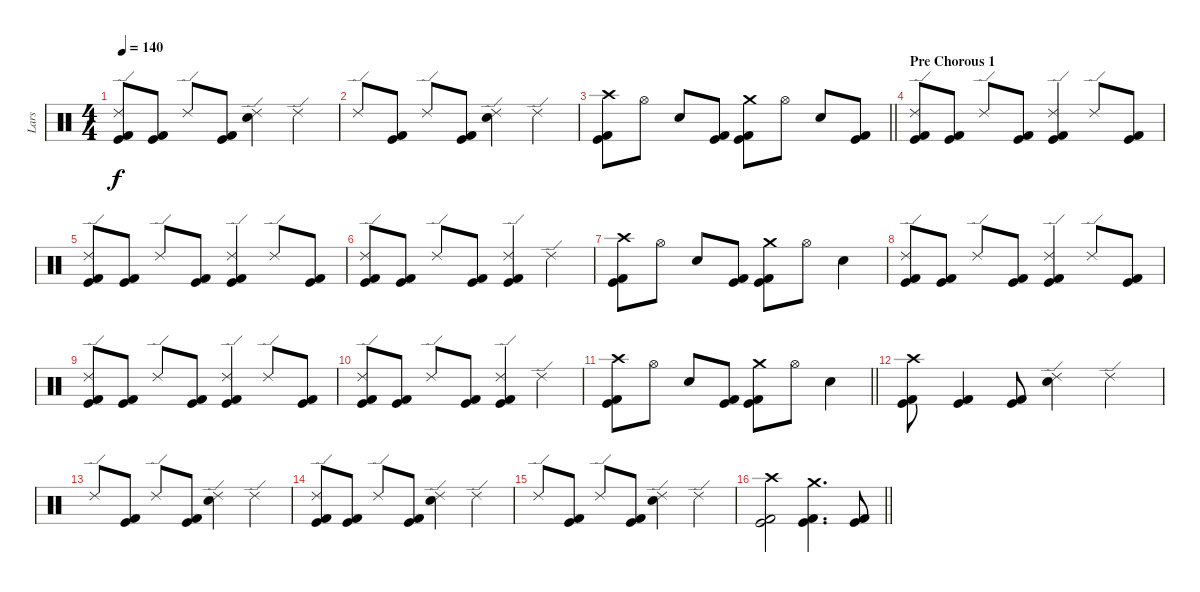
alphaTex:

\track ("Lars" "Lars") {instrument percussion}
\staff {score}
\articulation defaults
\ts (4 4)
\tempo 140
\clef neutral
\ks c
("Ride (edge) 2" "Kick (hit)" "Kick (hit) 2").8{dy f} ("Kick (hit)" "Kick (hit) 2").8 "Ride (edge) 2".8 ("Kick (hit)" "Kick (hit) 2").8 ("Ride (edge) 2" "Electric Snare (hit)").4 "Ride (edge) 2".4 |
"Ride (edge) 2".8 ("Kick (hit)" "Kick (hit) 2").8 "Ride (edge) 2".8 ("Kick (hit)" "Kick (hit) 2").8 ("Ride (edge) 2" "Electric Snare (hit)").4 "Ride (edge) 2".4 |
\barLineRight lightlight
("Crash high (hit)" "Kick (hit)" "Kick (hit) 2").8 "Hi-Hat (open)".8 "Electric Snare (hit)".8 ("Kick (hit)" "Kick (hit) 2").8 ("Crash medium (hit)" "Kick (hit)" "Kick (hit) 2").8 "Hi-Hat (open)".8 "Electric Snare (hit)".8 ("Kick (hit)" "Kick (hit) 2").8 |
\section ("" "Pre Chorous 1")
("Ride (edge) 2" "Kick (hit)" "Kick (hit) 2").8 ("Kick (hit)" "Kick (hit) 2").8 "Ride (edge) 2".8 ("Kick (hit)" "Kick (hit) 2").8 ("Ride (edge) 2" "Kick (hit)" "Kick (hit) 2").4 "Ride (edge) 2".8 ("Kick (hit)" "Kick (hit) 2").8 |
("Ride (edge) 2" "Kick (hit)" "Kick (hit) 2").8 ("Kick (hit)" "Kick (hit) 2").8 "Ride (edge) 2".8 ("Kick (hit)" "Kick (hit) 2").8 ("Ride (edge) 2" "Kick (hit)" "Kick (hit) 2").4 "Ride (edge) 2".8 ("Kick (hit)" "Kick (hit) 2").8 |
("Ride (edge) 2" "Kick (hit)" "Kick (hit) 2").8 ("Kick (hit)" "Kick (hit) 2").8 "Ride (edge) 2".8 ("Kick (hit)" "Kick (hit) 2").8 ("Ride (edge) 2" "Kick (hit)" "Kick (hit) 2").4 "Ride (edge) 2".4 |
("Crash high (hit)" "Kick (hit)" "Kick (hit) 2").8 "Hi-Hat (open)".8 "Electric Snare (hit)".8 ("Kick (hit)" "Kick (hit) 2").8 ("Crash medium (hit)" "Kick (hit)" "Kick (hit) 2").8 "Hi-Hat (open)".8 "Electric Snare (hit)".4 |
("Ride (edge) 2" "Kick (hit)" "Kick (hit) 2").8 ("Kick (hit)" "Kick (hit) 2").8 "Ride (edge) 2".8 ("Kick (hit)" "Kick (hit) 2").8 ("Ride (edge) 2" "Kick (hit)" "Kick (hit) 2").4 "Ride (edge) 2".8 ("Kick (hit)" "Kick (hit) 2").8 |
("Ride (edge) 2" "Kick (hit)" "Kick (hit) 2").8 ("Kick (hit)" "Kick (hit) 2").8 "Ride (edge) 2".8 ("Kick (hit)" "Kick (hit) 2").8 ("Ride (edge) 2" "Kick (hit)" "Kick (hit) 2").4 "Ride (edge) 2".8 ("Kick (hit)" "Kick (hit) 2").8 |
("Ride (edge) 2" "Kick (hit)" "Kick (hit) 2").8 ("Kick (hit)" "Kick (hit) 2").8 "Ride (edge) 2".8 ("Kick (hit)" "Kick (hit) 2").8 ("Ride (edge) 2" "Kick (hit)" "Kick (hit) 2").4 "Ride (edge) 2".4 |
\barLineRight lightlight
("Crash high (hit)" "Kick (hit)" "Kick (hit) 2").8 "Hi-Hat (open)".8 "Electric Snare (hit)".8 ("Kick (hit)" "Kick (hit) 2").8 ("Crash medium (hit)" "Kick (hit)" "Kick (hit) 2").8 "Hi-Hat (open)".8 "Electric Snare (hit)".4 |
\section ("" "")
("Crash high (hit)" "Kick (hit)" "Kick (hit) 2").8 ("Kick (hit)" "Kick (hit) 2").4 ("Kick (hit)" "Kick (hit) 2").8 ("Ride (edge) 2" "Electric Snare (hit)").4 "Ride (edge) 2".4 |
"Ride (edge) 2".8 ("Kick (hit)" "Kick (hit) 2").8 "Ride (edge) 2".8 ("Kick (hit)" "Kick (hit) 2").8 ("Ride (edge) 2" "Electric Snare (hit)").4 "Ride (edge) 2".4 |
("Ride (edge) 2" "Kick (hit)" "Kick (hit) 2").8 ("Kick (hit)" "Kick (hit) 2").8 "Ride (edge) 2".8 ("Kick (hit)" "Kick (hit) 2").8 ("Ride (edge) 2" "Electric Snare (hit)").4 "Ride (edge) 2".4 |
"Ride (edge) 2".8 ("Kick (hit)" "Kick (hit) 2").8 "Ride (edge) 2".8 ("Kick (hit)" "Kick (hit) 2").8 ("Ride (edge) 2" "Electric Snare (hit)").4 "Ride (edge) 2".4 |
\barLineRight lightlight
("Crash high (hit)" "Kick (hit)" "Kick (hit) 2").2 ("Crash medium (hit)" "Kick (hit)" "Kick (hit) 2").4{d} ("Kick (hit)" "Kick (hit) 2").8
